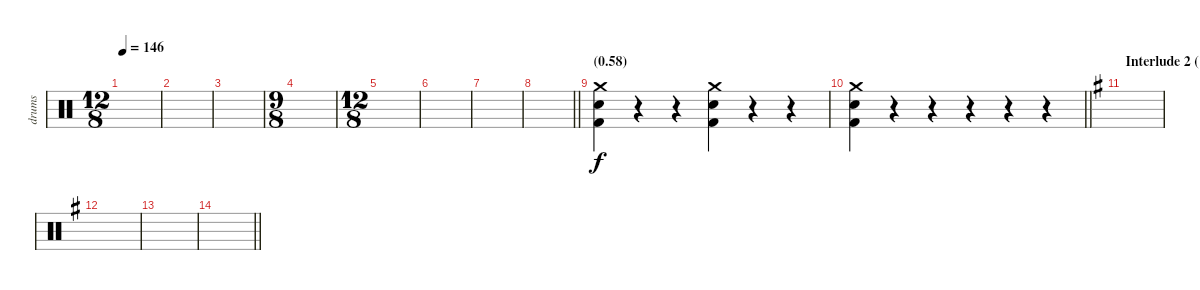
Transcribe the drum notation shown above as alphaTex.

\track ("drums" "drums") {instrument percussion}
\staff {score}
\articulation defaults
\ts (12 8)
\tempo 146
\clef neutral
\ks c
|
|
|
\ts (9 8)
|
\ts (12 8)
|
|
|
\barLineRight lightlight
|
\section ("" "(0.58)")
("Crash medium (hit)" "Electric Snare (hit)" "Kick (hit) 2").4 r.4 r.4 ("Crash medium (hit)" "Electric Snare (hit)" "Kick (hit) 2").4 r.4 r.4 |
\barLineRight lightlight
("Crash medium (hit)" "Electric Snare (hit)" "Kick (hit) 2").4 r.4 r.4 r.4 r.4 r.4 |
\section ("" "Interlude 2 (1.03)")
\ks g
|
|
|
\barLineRight lightlight
